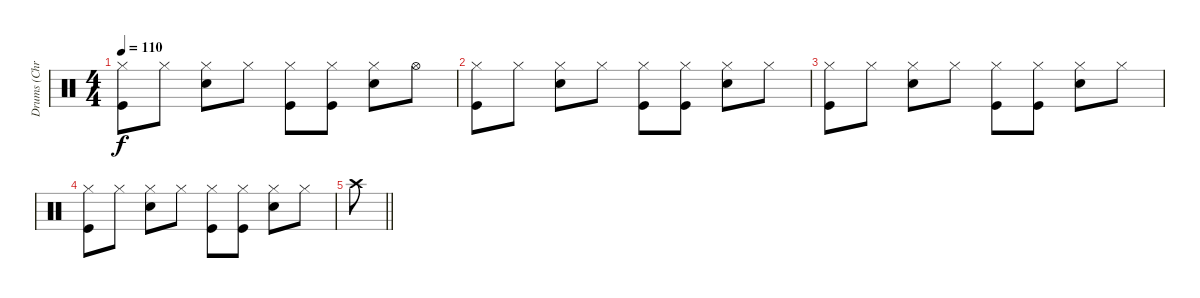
\track ("Drums (Chris Frantz)" "Drums (Chr") {instrument percussion}
\staff {score}
\articulation defaults
\ts (4 4)
\tempo 110
\clef neutral
\ks c
("Hi-Hat (closed)" "Kick (hit)").8{dy f} "Hi-Hat (closed)".8 ("Hi-Hat (closed)" "Snare (hit) 2").8 "Hi-Hat (closed)".8 ("Hi-Hat (closed)" "Kick (hit)").8 ("Hi-Hat (closed)" "Kick (hit)").8 ("Hi-Hat (closed)" "Snare (hit) 2").8 "Hi-Hat (open)".8 |
("Hi-Hat (closed)" "Kick (hit)").8 "Hi-Hat (closed)".8 ("Hi-Hat (closed)" "Snare (hit) 2").8 "Hi-Hat (closed)".8 ("Hi-Hat (closed)" "Kick (hit)").8 ("Hi-Hat (closed)" "Kick (hit)").8 ("Hi-Hat (closed)" "Snare (hit) 2").8 "Hi-Hat (closed)".8 |
("Hi-Hat (closed)" "Kick (hit)").8 "Hi-Hat (closed)".8 ("Hi-Hat (closed)" "Snare (hit) 2").8 "Hi-Hat (closed)".8 ("Hi-Hat (closed)" "Kick (hit)").8 ("Hi-Hat (closed)" "Kick (hit)").8 ("Hi-Hat (closed)" "Snare (hit) 2").8 "Hi-Hat (closed)".8 |
("Hi-Hat (closed)" "Kick (hit)").8 "Hi-Hat (closed)".8 ("Hi-Hat (closed)" "Snare (hit) 2").8 "Hi-Hat (closed)".8 ("Hi-Hat (closed)" "Kick (hit)").8 ("Hi-Hat (closed)" "Kick (hit)").8 ("Hi-Hat (closed)" "Snare (hit) 2").8 "Hi-Hat (closed)".8 |
\barLineRight lightlight "Crash high (hit)".8
